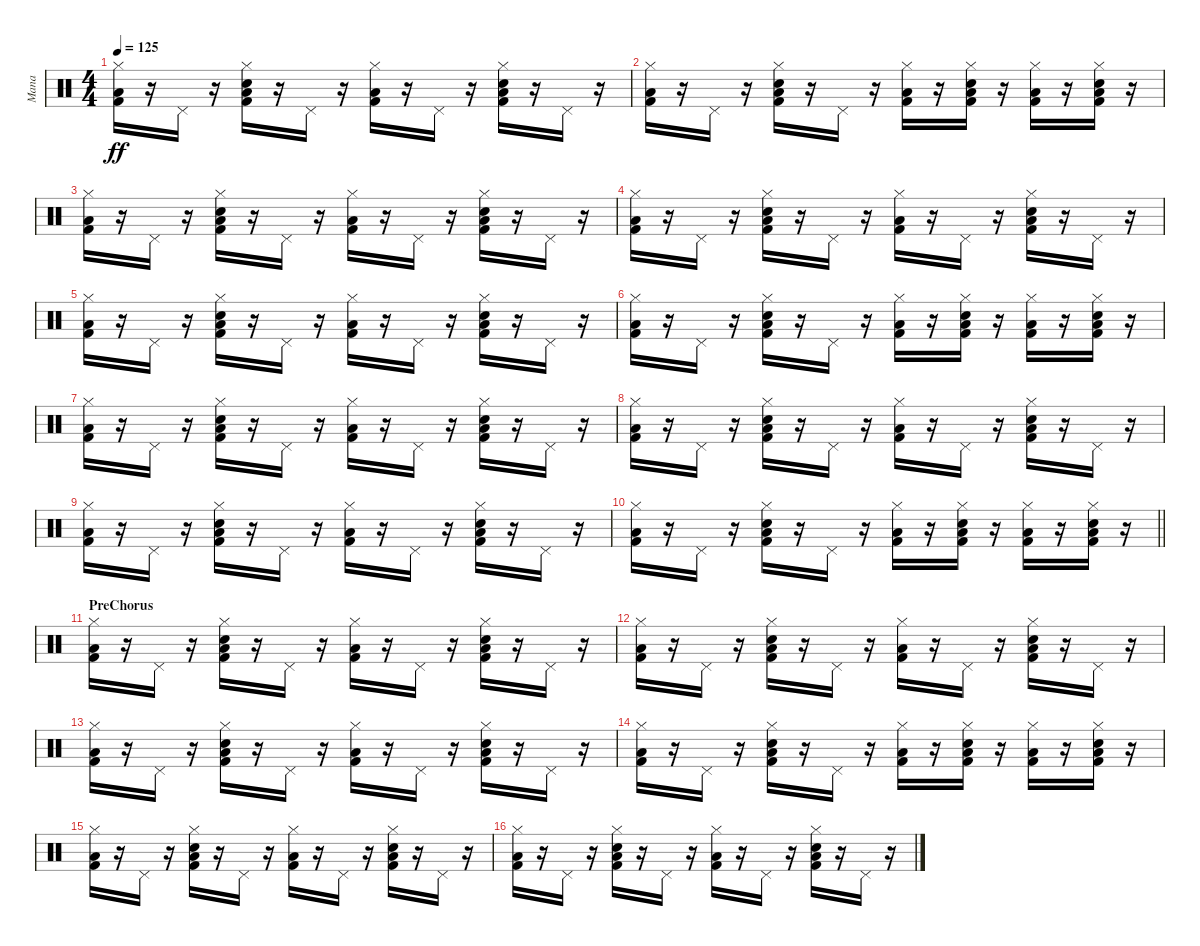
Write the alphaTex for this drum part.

\track ("Mana" "Mana") {instrument percussion}
\staff {score}
\articulation defaults
\ts (4 4)
\tempo 125
\clef neutral
\ks c
("Hi-Hat (closed)" "Low Floor Tom (hit)" "Kick (hit) 2").16{dy ff} r.16 "Pedal Hi-Hat (hit)".16 r.16 ("Hi-Hat (closed)" "Snare (hit) 2" "Low Floor Tom (hit)" "Kick (hit) 2").16 r.16 "Pedal Hi-Hat (hit)".16 r.16 ("Hi-Hat (closed)" "Low Floor Tom (hit)" "Kick (hit) 2").16 r.16 "Pedal Hi-Hat (hit)".16 r.16 ("Hi-Hat (closed)" "Snare (hit) 2" "Low Floor Tom (hit)" "Kick (hit) 2").16 r.16 "Pedal Hi-Hat (hit)".16 r.16 |
("Hi-Hat (closed)" "Low Floor Tom (hit)" "Kick (hit) 2").16 r.16 "Pedal Hi-Hat (hit)".16 r.16 ("Hi-Hat (closed)" "Snare (hit) 2" "Low Floor Tom (hit)" "Kick (hit) 2").16 r.16 "Pedal Hi-Hat (hit)".16 r.16 ("Hi-Hat (closed)" "Low Floor Tom (hit)" "Kick (hit) 2").16 r.16 ("Hi-Hat (closed)" "Snare (hit) 2" "Low Floor Tom (hit)" "Kick (hit) 2").16 r.16 ("Hi-Hat (closed)" "Low Floor Tom (hit)" "Kick (hit) 2").16 r.16 ("Hi-Hat (closed)" "Snare (hit) 2" "Low Floor Tom (hit)" "Kick (hit) 2").16 r.16 |
("Hi-Hat (closed)" "Low Floor Tom (hit)" "Kick (hit) 2").16 r.16 "Pedal Hi-Hat (hit)".16 r.16 ("Hi-Hat (closed)" "Snare (hit) 2" "Low Floor Tom (hit)" "Kick (hit) 2").16 r.16 "Pedal Hi-Hat (hit)".16 r.16 ("Hi-Hat (closed)" "Low Floor Tom (hit)" "Kick (hit) 2").16 r.16 "Pedal Hi-Hat (hit)".16 r.16 ("Hi-Hat (closed)" "Snare (hit) 2" "Low Floor Tom (hit)" "Kick (hit) 2").16 r.16 "Pedal Hi-Hat (hit)".16 r.16 |
("Hi-Hat (closed)" "Low Floor Tom (hit)" "Kick (hit) 2").16 r.16 "Pedal Hi-Hat (hit)".16 r.16 ("Hi-Hat (closed)" "Snare (hit) 2" "Low Floor Tom (hit)" "Kick (hit) 2").16 r.16 "Pedal Hi-Hat (hit)".16 r.16 ("Hi-Hat (closed)" "Low Floor Tom (hit)" "Kick (hit) 2").16 r.16 "Pedal Hi-Hat (hit)".16 r.16 ("Hi-Hat (closed)" "Snare (hit) 2" "Low Floor Tom (hit)" "Kick (hit) 2").16 r.16 "Pedal Hi-Hat (hit)".16 r.16 |
("Hi-Hat (closed)" "Low Floor Tom (hit)" "Kick (hit) 2").16 r.16 "Pedal Hi-Hat (hit)".16 r.16 ("Hi-Hat (closed)" "Snare (hit) 2" "Low Floor Tom (hit)" "Kick (hit) 2").16 r.16 "Pedal Hi-Hat (hit)".16 r.16 ("Hi-Hat (closed)" "Low Floor Tom (hit)" "Kick (hit) 2").16 r.16 "Pedal Hi-Hat (hit)".16 r.16 ("Hi-Hat (closed)" "Snare (hit) 2" "Low Floor Tom (hit)" "Kick (hit) 2").16 r.16 "Pedal Hi-Hat (hit)".16 r.16 |
("Hi-Hat (closed)" "Low Floor Tom (hit)" "Kick (hit) 2").16 r.16 "Pedal Hi-Hat (hit)".16 r.16 ("Hi-Hat (closed)" "Snare (hit) 2" "Low Floor Tom (hit)" "Kick (hit) 2").16 r.16 "Pedal Hi-Hat (hit)".16 r.16 ("Hi-Hat (closed)" "Low Floor Tom (hit)" "Kick (hit) 2").16 r.16 ("Hi-Hat (closed)" "Snare (hit) 2" "Low Floor Tom (hit)" "Kick (hit) 2").16 r.16 ("Hi-Hat (closed)" "Low Floor Tom (hit)" "Kick (hit) 2").16 r.16 ("Hi-Hat (closed)" "Snare (hit) 2" "Low Floor Tom (hit)" "Kick (hit) 2").16 r.16 |
("Hi-Hat (closed)" "Low Floor Tom (hit)" "Kick (hit) 2").16 r.16 "Pedal Hi-Hat (hit)".16 r.16 ("Hi-Hat (closed)" "Snare (hit) 2" "Low Floor Tom (hit)" "Kick (hit) 2").16 r.16 "Pedal Hi-Hat (hit)".16 r.16 ("Hi-Hat (closed)" "Low Floor Tom (hit)" "Kick (hit) 2").16 r.16 "Pedal Hi-Hat (hit)".16 r.16 ("Hi-Hat (closed)" "Snare (hit) 2" "Low Floor Tom (hit)" "Kick (hit) 2").16 r.16 "Pedal Hi-Hat (hit)".16 r.16 |
("Hi-Hat (closed)" "Low Floor Tom (hit)" "Kick (hit) 2").16 r.16 "Pedal Hi-Hat (hit)".16 r.16 ("Hi-Hat (closed)" "Snare (hit) 2" "Low Floor Tom (hit)" "Kick (hit) 2").16 r.16 "Pedal Hi-Hat (hit)".16 r.16 ("Hi-Hat (closed)" "Low Floor Tom (hit)" "Kick (hit) 2").16 r.16 "Pedal Hi-Hat (hit)".16 r.16 ("Hi-Hat (closed)" "Snare (hit) 2" "Low Floor Tom (hit)" "Kick (hit) 2").16 r.16 "Pedal Hi-Hat (hit)".16 r.16 |
("Hi-Hat (closed)" "Low Floor Tom (hit)" "Kick (hit) 2").16 r.16 "Pedal Hi-Hat (hit)".16 r.16 ("Hi-Hat (closed)" "Snare (hit) 2" "Low Floor Tom (hit)" "Kick (hit) 2").16 r.16 "Pedal Hi-Hat (hit)".16 r.16 ("Hi-Hat (closed)" "Low Floor Tom (hit)" "Kick (hit) 2").16 r.16 "Pedal Hi-Hat (hit)".16 r.16 ("Hi-Hat (closed)" "Snare (hit) 2" "Low Floor Tom (hit)" "Kick (hit) 2").16 r.16 "Pedal Hi-Hat (hit)".16 r.16 |
\barLineRight lightlight
("Hi-Hat (closed)" "Low Floor Tom (hit)" "Kick (hit) 2").16 r.16 "Pedal Hi-Hat (hit)".16 r.16 ("Hi-Hat (closed)" "Snare (hit) 2" "Low Floor Tom (hit)" "Kick (hit) 2").16 r.16 "Pedal Hi-Hat (hit)".16 r.16 ("Hi-Hat (closed)" "Low Floor Tom (hit)" "Kick (hit) 2").16 r.16 ("Hi-Hat (closed)" "Snare (hit) 2" "Low Floor Tom (hit)" "Kick (hit) 2").16 r.16 ("Hi-Hat (closed)" "Low Floor Tom (hit)" "Kick (hit) 2").16 r.16 ("Hi-Hat (closed)" "Snare (hit) 2" "Low Floor Tom (hit)" "Kick (hit) 2").16 r.16 |
\section ("" "PreChorus ")
("Hi-Hat (closed)" "Low Floor Tom (hit)" "Kick (hit) 2").16 r.16 "Pedal Hi-Hat (hit)".16 r.16 ("Hi-Hat (closed)" "Snare (hit) 2" "Low Floor Tom (hit)" "Kick (hit) 2").16 r.16 "Pedal Hi-Hat (hit)".16 r.16 ("Hi-Hat (closed)" "Low Floor Tom (hit)" "Kick (hit) 2").16 r.16 "Pedal Hi-Hat (hit)".16 r.16 ("Hi-Hat (closed)" "Snare (hit) 2" "Low Floor Tom (hit)" "Kick (hit) 2").16 r.16 "Pedal Hi-Hat (hit)".16 r.16 |
("Hi-Hat (closed)" "Low Floor Tom (hit)" "Kick (hit) 2").16 r.16 "Pedal Hi-Hat (hit)".16 r.16 ("Hi-Hat (closed)" "Snare (hit) 2" "Low Floor Tom (hit)" "Kick (hit) 2").16 r.16 "Pedal Hi-Hat (hit)".16 r.16 ("Hi-Hat (closed)" "Low Floor Tom (hit)" "Kick (hit) 2").16 r.16 "Pedal Hi-Hat (hit)".16 r.16 ("Hi-Hat (closed)" "Snare (hit) 2" "Low Floor Tom (hit)" "Kick (hit) 2").16 r.16 "Pedal Hi-Hat (hit)".16 r.16 |
("Hi-Hat (closed)" "Low Floor Tom (hit)" "Kick (hit) 2").16 r.16 "Pedal Hi-Hat (hit)".16 r.16 ("Hi-Hat (closed)" "Snare (hit) 2" "Low Floor Tom (hit)" "Kick (hit) 2").16 r.16 "Pedal Hi-Hat (hit)".16 r.16 ("Hi-Hat (closed)" "Low Floor Tom (hit)" "Kick (hit) 2").16 r.16 "Pedal Hi-Hat (hit)".16 r.16 ("Hi-Hat (closed)" "Snare (hit) 2" "Low Floor Tom (hit)" "Kick (hit) 2").16 r.16 "Pedal Hi-Hat (hit)".16 r.16 |
("Hi-Hat (closed)" "Low Floor Tom (hit)" "Kick (hit) 2").16 r.16 "Pedal Hi-Hat (hit)".16 r.16 ("Hi-Hat (closed)" "Snare (hit) 2" "Low Floor Tom (hit)" "Kick (hit) 2").16 r.16 "Pedal Hi-Hat (hit)".16 r.16 ("Hi-Hat (closed)" "Low Floor Tom (hit)" "Kick (hit) 2").16 r.16 ("Hi-Hat (closed)" "Snare (hit) 2" "Low Floor Tom (hit)" "Kick (hit) 2").16 r.16 ("Hi-Hat (closed)" "Low Floor Tom (hit)" "Kick (hit) 2").16 r.16 ("Hi-Hat (closed)" "Snare (hit) 2" "Low Floor Tom (hit)" "Kick (hit) 2").16 r.16 |
("Hi-Hat (closed)" "Low Floor Tom (hit)" "Kick (hit) 2").16 r.16 "Pedal Hi-Hat (hit)".16 r.16 ("Hi-Hat (closed)" "Snare (hit) 2" "Low Floor Tom (hit)" "Kick (hit) 2").16 r.16 "Pedal Hi-Hat (hit)".16 r.16 ("Hi-Hat (closed)" "Low Floor Tom (hit)" "Kick (hit) 2").16 r.16 "Pedal Hi-Hat (hit)".16 r.16 ("Hi-Hat (closed)" "Snare (hit) 2" "Low Floor Tom (hit)" "Kick (hit) 2").16 r.16 "Pedal Hi-Hat (hit)".16 r.16 |
("Hi-Hat (closed)" "Low Floor Tom (hit)" "Kick (hit) 2").16 r.16 "Pedal Hi-Hat (hit)".16 r.16 ("Hi-Hat (closed)" "Snare (hit) 2" "Low Floor Tom (hit)" "Kick (hit) 2").16 r.16 "Pedal Hi-Hat (hit)".16 r.16 ("Hi-Hat (closed)" "Low Floor Tom (hit)" "Kick (hit) 2").16 r.16 "Pedal Hi-Hat (hit)".16 r.16 ("Hi-Hat (closed)" "Snare (hit) 2" "Low Floor Tom (hit)" "Kick (hit) 2").16 r.16 "Pedal Hi-Hat (hit)".16 r.16
